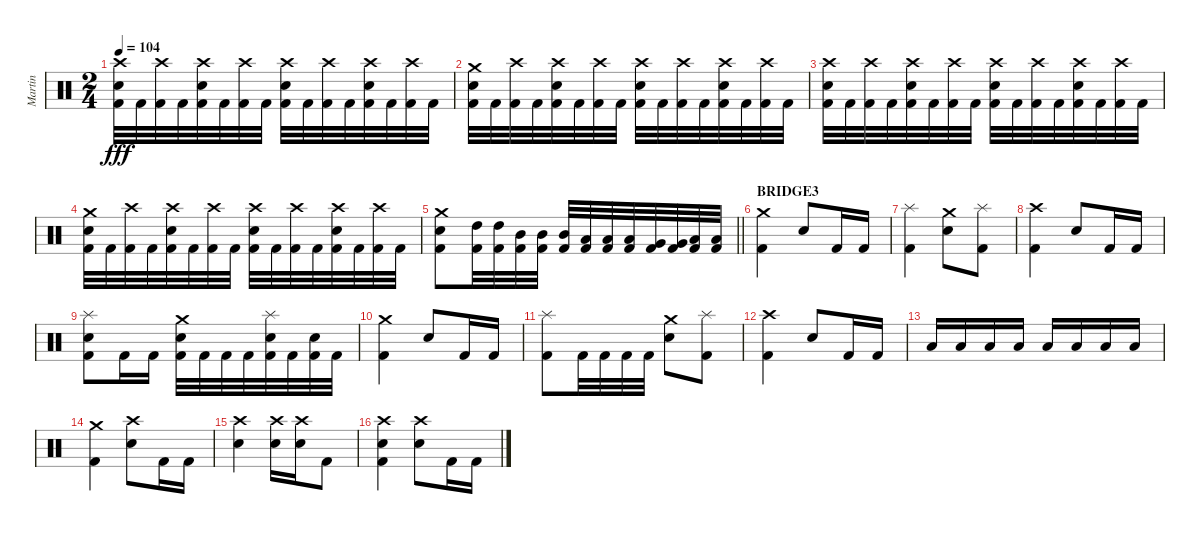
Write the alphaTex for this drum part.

\track ("Martin" "Martin") {instrument percussion}
\staff {score}
\articulation defaults
\ts (2 4)
\tempo 104
\clef neutral
\ks c
("Crash high (hit)" "Electric Snare (hit)" "Kick (hit) 2").32{dy fff} "Kick (hit) 2".32 ("Crash high (hit)" "Kick (hit) 2").32 "Kick (hit) 2".32 ("Crash high (hit)" "Electric Snare (hit)" "Kick (hit) 2").32 "Kick (hit) 2".32 ("Crash high (hit)" "Kick (hit) 2").32 "Kick (hit) 2".32 ("Crash high (hit)" "Electric Snare (hit)" "Kick (hit) 2").32 "Kick (hit) 2".32 ("Crash high (hit)" "Kick (hit) 2").32 "Kick (hit) 2".32 ("Crash high (hit)" "Electric Snare (hit)" "Kick (hit) 2").32 "Kick (hit) 2".32 ("Crash high (hit)" "Kick (hit) 2").32 "Kick (hit) 2".32 |
("Crash medium (hit)" "Electric Snare (hit)" "Kick (hit) 2").32 "Kick (hit) 2".32 ("Crash high (hit)" "Kick (hit) 2").32 "Kick (hit) 2".32 ("Crash high (hit)" "Electric Snare (hit)" "Kick (hit) 2").32 "Kick (hit) 2".32 ("Crash high (hit)" "Kick (hit) 2").32 "Kick (hit) 2".32 ("Crash high (hit)" "Electric Snare (hit)" "Kick (hit) 2").32 "Kick (hit) 2".32 ("Crash high (hit)" "Kick (hit) 2").32 "Kick (hit) 2".32 ("Crash high (hit)" "Electric Snare (hit)" "Kick (hit) 2").32 "Kick (hit) 2".32 ("Crash high (hit)" "Kick (hit) 2").32 "Kick (hit) 2".32 |
("Crash high (hit)" "Electric Snare (hit)" "Kick (hit) 2").32 "Kick (hit) 2".32 ("Crash high (hit)" "Kick (hit) 2").32 "Kick (hit) 2".32 ("Crash high (hit)" "Electric Snare (hit)" "Kick (hit) 2").32 "Kick (hit) 2".32 ("Crash high (hit)" "Kick (hit) 2").32 "Kick (hit) 2".32 ("Crash high (hit)" "Electric Snare (hit)" "Kick (hit) 2").32 "Kick (hit) 2".32 ("Crash high (hit)" "Kick (hit) 2").32 "Kick (hit) 2".32 ("Crash high (hit)" "Electric Snare (hit)" "Kick (hit) 2").32 "Kick (hit) 2".32 ("Crash high (hit)" "Kick (hit) 2").32 "Kick (hit) 2".32 |
("Crash medium (hit)" "Electric Snare (hit)" "Kick (hit) 2").32 "Kick (hit) 2".32 ("Crash high (hit)" "Kick (hit) 2").32 "Kick (hit) 2".32 ("Crash high (hit)" "Electric Snare (hit)" "Kick (hit) 2").32 "Kick (hit) 2".32 ("Crash high (hit)" "Kick (hit) 2").32 "Kick (hit) 2".32 ("Crash high (hit)" "Electric Snare (hit)" "Kick (hit) 2").32 "Kick (hit) 2".32 ("Crash high (hit)" "Kick (hit) 2").32 "Kick (hit) 2".32 ("Crash high (hit)" "Electric Snare (hit)" "Kick (hit) 2").32 "Kick (hit) 2".32 ("Crash high (hit)" "Kick (hit) 2").32 "Kick (hit) 2".32 |
\barLineRight lightlight
("Crash medium (hit)" "Electric Snare (hit)" "Kick (hit) 2").8 ("High Tom (hit)" "Kick (hit) 2").32 ("High Tom (hit)" "Kick (hit) 2").32 ("Mid Tom (hit)" "Kick (hit) 2").32 ("Mid Tom (hit)" "Kick (hit) 2").32 ("Mid Tom (hit)" "Kick (hit) 2").32 ("Low Tom (hit)" "Kick (hit) 2").32 ("Low Tom (hit)" "Kick (hit) 2").32 ("Low Tom (hit)" "Kick (hit) 2").32 ("Very Low Tom (hit)" "Kick (hit) 2").32 ("Very Low Tom (hit)" "Kick (hit) 2").32 ("Low Floor Tom (hit)" "Kick (hit) 2").32 ("Low Floor Tom (hit)" "Kick (hit) 2").32 |
\section ("" "BRIDGE3")
("Crash medium (hit)" "Kick (hit) 2").4 "Electric Snare (hit)".8 "Kick (hit) 2".16 "Kick (hit) 2".16 |
("Splash (hit)" "Kick (hit) 2").4 ("Crash medium (hit)" "Electric Snare (hit)").8 ("Splash (hit)" "Kick (hit) 2").8 |
("Crash high (hit)" "Kick (hit) 2").4 "Electric Snare (hit)".8 "Kick (hit) 2".16 "Kick (hit) 2".16 |
("Splash (hit)" "Electric Snare (hit)" "Kick (hit) 2").8 "Kick (hit) 2".16 "Kick (hit) 2".16 ("Crash medium (hit)" "Electric Snare (hit)" "Kick (hit) 2").32 "Kick (hit) 2".32 "Kick (hit) 2".32 "Kick (hit) 2".32 ("Splash (hit)" "Electric Snare (hit)" "Kick (hit) 2").32 "Kick (hit) 2".32 ("Electric Snare (hit)" "Kick (hit) 2").32 "Kick (hit) 2".32 |
("Crash medium (hit)" "Kick (hit) 2").4 "Electric Snare (hit)".8 "Kick (hit) 2".16 "Kick (hit) 2".16 |
("Splash (hit)" "Kick (hit) 2").8 "Kick (hit) 2".32 "Kick (hit) 2".32 "Kick (hit) 2".32 "Kick (hit) 2".32 ("Crash medium (hit)" "Electric Snare (hit)").8 ("Splash (hit)" "Kick (hit) 2").8 |
("Crash high (hit)" "Kick (hit) 2").4 "Electric Snare (hit)".8 "Kick (hit) 2".16 "Kick (hit) 2".16 |
"Low Floor Tom (hit)".16 "Low Floor Tom (hit)".16 "Low Floor Tom (hit)".16 "Low Floor Tom (hit)".16 "Low Floor Tom (hit)".16 "Low Floor Tom (hit)".16 "Low Floor Tom (hit)".16 "Low Floor Tom (hit)".16 |
("Crash medium (hit)" "Kick (hit) 2").4 ("Crash high (hit)" "Electric Snare (hit)").8 "Kick (hit) 2".16 "Kick (hit) 2".16 |
("Crash high (hit)" "Electric Snare (hit)").4 ("Crash high (hit)" "Electric Snare (hit)").16 ("Crash high (hit)" "Electric Snare (hit)").16 "Kick (hit) 2".8 |
("Crash high (hit)" "Electric Snare (hit)" "Kick (hit) 2").4 ("Crash high (hit)" "Electric Snare (hit)").8 "Kick (hit) 2".16 "Kick (hit) 2".16
